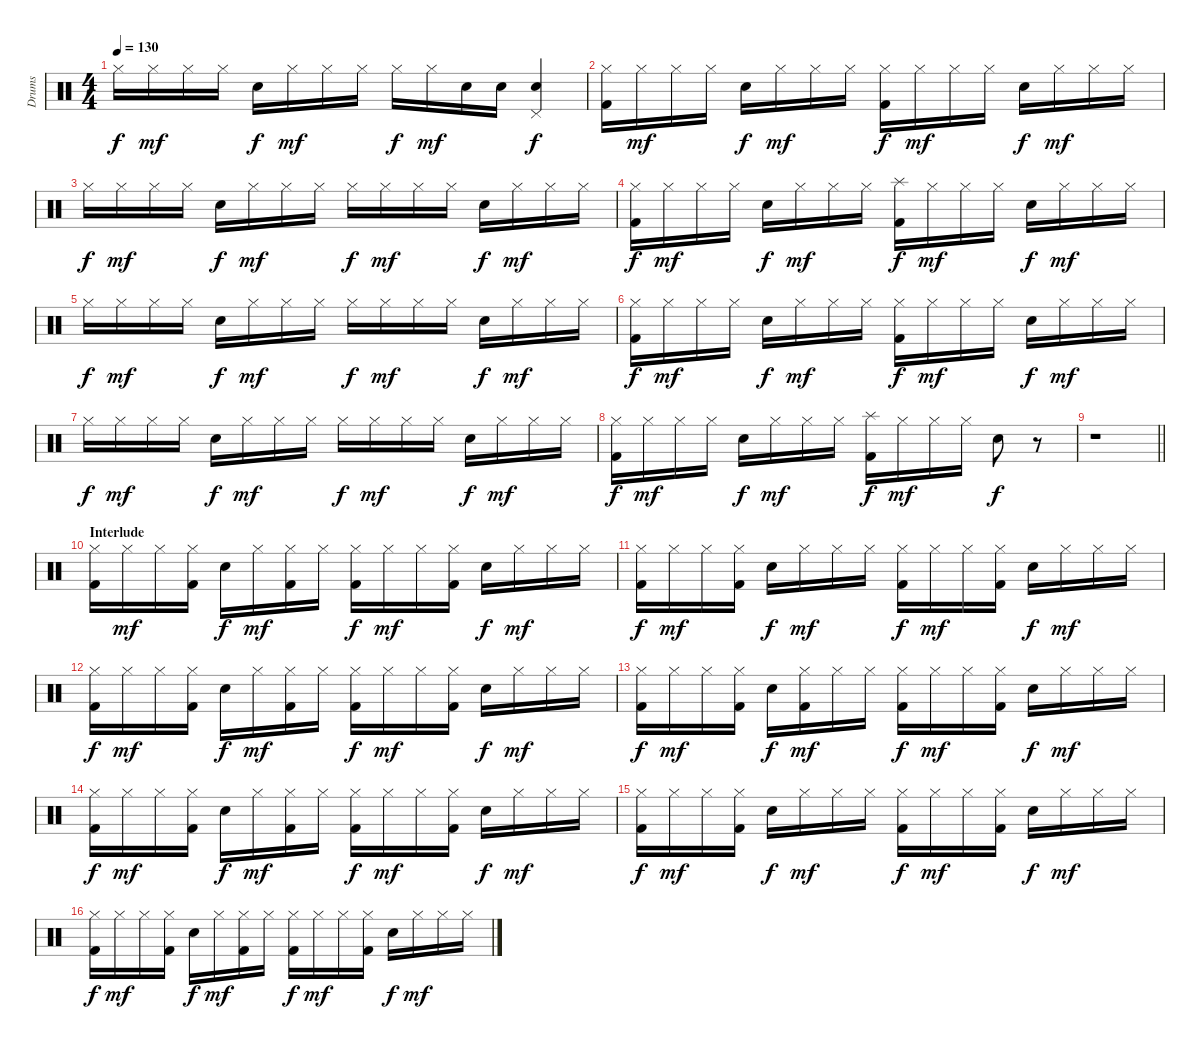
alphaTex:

\track ("Drums" "Drums") {instrument percussion}
\staff {score}
\articulation defaults
\ts (4 4)
\tempo 130
\clef neutral
\ks c "Hi-Hat (closed)".16{dy f} "Hi-Hat (closed)".16{dy mf} "Hi-Hat (closed)".16 "Hi-Hat (closed)".16 "Snare (hit) 2".16{dy f} "Hi-Hat (closed)".16{dy mf} "Hi-Hat (closed)".16 "Hi-Hat (closed)".16 "Hi-Hat (closed)".16{dy f} "Hi-Hat (closed)".16{dy mf} "Snare (hit) 2".16 "Snare (hit) 2".16
("Pedal Hi-Hat (hit)" "Snare (hit) 2").4{dy f} |
("Hi-Hat (closed)" "Kick (hit) 2").16 "Hi-Hat (closed)".16{dy mf} "Hi-Hat (closed)".16 "Hi-Hat (closed)".16 "Snare (hit) 2".16{dy f} "Hi-Hat (closed)".16{dy mf} "Hi-Hat (closed)".16 "Hi-Hat (closed)".16 ("Hi-Hat (closed)" "Kick (hit) 2").16{dy f} "Hi-Hat (closed)".16{dy mf} "Hi-Hat (closed)".16 "Hi-Hat (closed)".16 "Snare (hit) 2".16{dy f} "Hi-Hat (closed)".16{dy mf} "Hi-Hat (closed)".16 "Hi-Hat (closed)".16 |
"Hi-Hat (closed)".16{dy f} "Hi-Hat (closed)".16{dy mf} "Hi-Hat (closed)".16 "Hi-Hat (closed)".16 "Snare (hit) 2".16{dy f} "Hi-Hat (closed)".16{dy mf} "Hi-Hat (closed)".16 "Hi-Hat (closed)".16 "Hi-Hat (closed)".16{dy f} "Hi-Hat (closed)".16{dy mf} "Hi-Hat (closed)".16 "Hi-Hat (closed)".16 "Snare (hit) 2".16{dy f} "Hi-Hat (closed)".16{dy mf} "Hi-Hat (closed)".16 "Hi-Hat (closed)".16 |
("Hi-Hat (closed)" "Kick (hit) 2").16{dy f} "Hi-Hat (closed)".16{dy mf} "Hi-Hat (closed)".16 "Hi-Hat (closed)".16 "Snare (hit) 2".16{dy f} "Hi-Hat (closed)".16{dy mf} "Hi-Hat (closed)".16 "Hi-Hat (closed)".16 ("Splash (hit)" "Kick (hit) 2").16{dy f} "Hi-Hat (closed)".16{dy mf} "Hi-Hat (closed)".16 "Hi-Hat (closed)".16 "Snare (hit) 2".16{dy f} "Hi-Hat (closed)".16{dy mf} "Hi-Hat (closed)".16 "Hi-Hat (closed)".16 |
"Hi-Hat (closed)".16{dy f} "Hi-Hat (closed)".16{dy mf} "Hi-Hat (closed)".16 "Hi-Hat (closed)".16 "Snare (hit) 2".16{dy f} "Hi-Hat (closed)".16{dy mf} "Hi-Hat (closed)".16 "Hi-Hat (closed)".16 "Hi-Hat (closed)".16{dy f} "Hi-Hat (closed)".16{dy mf} "Hi-Hat (closed)".16 "Hi-Hat (closed)".16 "Snare (hit) 2".16{dy f} "Hi-Hat (closed)".16{dy mf} "Hi-Hat (closed)".16 "Hi-Hat (closed)".16 |
("Hi-Hat (closed)" "Kick (hit) 2").16{dy f} "Hi-Hat (closed)".16{dy mf} "Hi-Hat (closed)".16 "Hi-Hat (closed)".16 "Snare (hit) 2".16{dy f} "Hi-Hat (closed)".16{dy mf} "Hi-Hat (closed)".16 "Hi-Hat (closed)".16 ("Hi-Hat (closed)" "Kick (hit) 2").16{dy f} "Hi-Hat (closed)".16{dy mf} "Hi-Hat (closed)".16 "Hi-Hat (closed)".16 "Snare (hit) 2".16{dy f} "Hi-Hat (closed)".16{dy mf} "Hi-Hat (closed)".16 "Hi-Hat (closed)".16 |
"Hi-Hat (closed)".16{dy f} "Hi-Hat (closed)".16{dy mf} "Hi-Hat (closed)".16 "Hi-Hat (closed)".16 "Snare (hit) 2".16{dy f} "Hi-Hat (closed)".16{dy mf} "Hi-Hat (closed)".16 "Hi-Hat (closed)".16 "Hi-Hat (closed)".16{dy f} "Hi-Hat (closed)".16{dy mf} "Hi-Hat (closed)".16 "Hi-Hat (closed)".16 "Snare (hit) 2".16{dy f} "Hi-Hat (closed)".16{dy mf} "Hi-Hat (closed)".16 "Hi-Hat (closed)".16 |
("Hi-Hat (closed)" "Kick (hit) 2").16{dy f} "Hi-Hat (closed)".16{dy mf} "Hi-Hat (closed)".16 "Hi-Hat (closed)".16 "Snare (hit) 2".16{dy f} "Hi-Hat (closed)".16{dy mf} "Hi-Hat (closed)".16 "Hi-Hat (closed)".16 ("Splash (hit)" "Kick (hit) 2").16{dy f} "Hi-Hat (closed)".16{dy mf} "Hi-Hat (closed)".16 "Hi-Hat (closed)".16 "Snare (hit) 2".8{dy f} r.8 |
\barLineRight lightlight
r.1 |
\section ("" "Interlude")
("Hi-Hat (closed)" "Kick (hit) 2").16 "Hi-Hat (closed)".16{dy mf} "Hi-Hat (closed)".16 ("Hi-Hat (closed)" "Kick (hit) 2").16 "Snare (hit) 2".16{dy f} "Hi-Hat (closed)".16{dy mf} ("Hi-Hat (closed)" "Kick (hit) 2").16 "Hi-Hat (closed)".16 ("Hi-Hat (closed)" "Kick (hit) 2").16{dy f} "Hi-Hat (closed)".16{dy mf} "Hi-Hat (closed)".16 ("Hi-Hat (closed)" "Kick (hit) 2").16 "Snare (hit) 2".16{dy f} "Hi-Hat (closed)".16{dy mf} "Hi-Hat (closed)".16 "Hi-Hat (closed)".16 |
("Hi-Hat (closed)" "Kick (hit) 2").16{dy f} "Hi-Hat (closed)".16{dy mf} "Hi-Hat (closed)".16 ("Hi-Hat (closed)" "Kick (hit) 2").16 "Snare (hit) 2".16{dy f} "Hi-Hat (closed)".16{dy mf} "Hi-Hat (closed)".16 "Hi-Hat (closed)".16 ("Hi-Hat (closed)" "Kick (hit) 2").16{dy f} "Hi-Hat (closed)".16{dy mf} "Hi-Hat (closed)".16 ("Hi-Hat (closed)" "Kick (hit) 2").16 "Snare (hit) 2".16{dy f} "Hi-Hat (closed)".16{dy mf} "Hi-Hat (closed)".16 "Hi-Hat (closed)".16 |
("Hi-Hat (closed)" "Kick (hit) 2").16{dy f} "Hi-Hat (closed)".16{dy mf} "Hi-Hat (closed)".16 ("Hi-Hat (closed)" "Kick (hit) 2").16 "Snare (hit) 2".16{dy f} "Hi-Hat (closed)".16{dy mf} ("Hi-Hat (closed)" "Kick (hit) 2").16 "Hi-Hat (closed)".16 ("Hi-Hat (closed)" "Kick (hit) 2").16{dy f} "Hi-Hat (closed)".16{dy mf} "Hi-Hat (closed)".16 ("Hi-Hat (closed)" "Kick (hit) 2").16 "Snare (hit) 2".16{dy f} "Hi-Hat (closed)".16{dy mf} "Hi-Hat (closed)".16 "Hi-Hat (closed)".16 |
("Hi-Hat (closed)" "Kick (hit) 2").16{dy f} "Hi-Hat (closed)".16{dy mf} "Hi-Hat (closed)".16 ("Hi-Hat (closed)" "Kick (hit) 2").16 "Snare (hit) 2".16{dy f} ("Hi-Hat (closed)" "Kick (hit) 2").16{dy mf} "Hi-Hat (closed)".16 "Hi-Hat (closed)".16 ("Hi-Hat (closed)" "Kick (hit) 2").16{dy f} "Hi-Hat (closed)".16{dy mf} "Hi-Hat (closed)".16 ("Hi-Hat (closed)" "Kick (hit) 2").16 "Snare (hit) 2".16{dy f} "Hi-Hat (closed)".16{dy mf} "Hi-Hat (closed)".16 "Hi-Hat (closed)".16 |
("Hi-Hat (closed)" "Kick (hit) 2").16{dy f} "Hi-Hat (closed)".16{dy mf} "Hi-Hat (closed)".16 ("Hi-Hat (closed)" "Kick (hit) 2").16 "Snare (hit) 2".16{dy f} "Hi-Hat (closed)".16{dy mf} ("Hi-Hat (closed)" "Kick (hit) 2").16 "Hi-Hat (closed)".16 ("Hi-Hat (closed)" "Kick (hit) 2").16{dy f} "Hi-Hat (closed)".16{dy mf} "Hi-Hat (closed)".16 ("Hi-Hat (closed)" "Kick (hit) 2").16 "Snare (hit) 2".16{dy f} "Hi-Hat (closed)".16{dy mf} "Hi-Hat (closed)".16 "Hi-Hat (closed)".16 |
("Hi-Hat (closed)" "Kick (hit) 2").16{dy f} "Hi-Hat (closed)".16{dy mf} "Hi-Hat (closed)".16 ("Hi-Hat (closed)" "Kick (hit) 2").16 "Snare (hit) 2".16{dy f} "Hi-Hat (closed)".16{dy mf} "Hi-Hat (closed)".16 "Hi-Hat (closed)".16 ("Hi-Hat (closed)" "Kick (hit) 2").16{dy f} "Hi-Hat (closed)".16{dy mf} "Hi-Hat (closed)".16 ("Hi-Hat (closed)" "Kick (hit) 2").16 "Snare (hit) 2".16{dy f} "Hi-Hat (closed)".16{dy mf} "Hi-Hat (closed)".16 "Hi-Hat (closed)".16 |
("Hi-Hat (closed)" "Kick (hit) 2").16{dy f} "Hi-Hat (closed)".16{dy mf} "Hi-Hat (closed)".16 ("Hi-Hat (closed)" "Kick (hit) 2").16 "Snare (hit) 2".16{dy f} "Hi-Hat (closed)".16{dy mf} ("Hi-Hat (closed)" "Kick (hit) 2").16 "Hi-Hat (closed)".16 ("Hi-Hat (closed)" "Kick (hit) 2").16{dy f} "Hi-Hat (closed)".16{dy mf} "Hi-Hat (closed)".16 ("Hi-Hat (closed)" "Kick (hit) 2").16 "Snare (hit) 2".16{dy f} "Hi-Hat (closed)".16{dy mf} "Hi-Hat (closed)".16 "Hi-Hat (closed)".16{volume 6}
